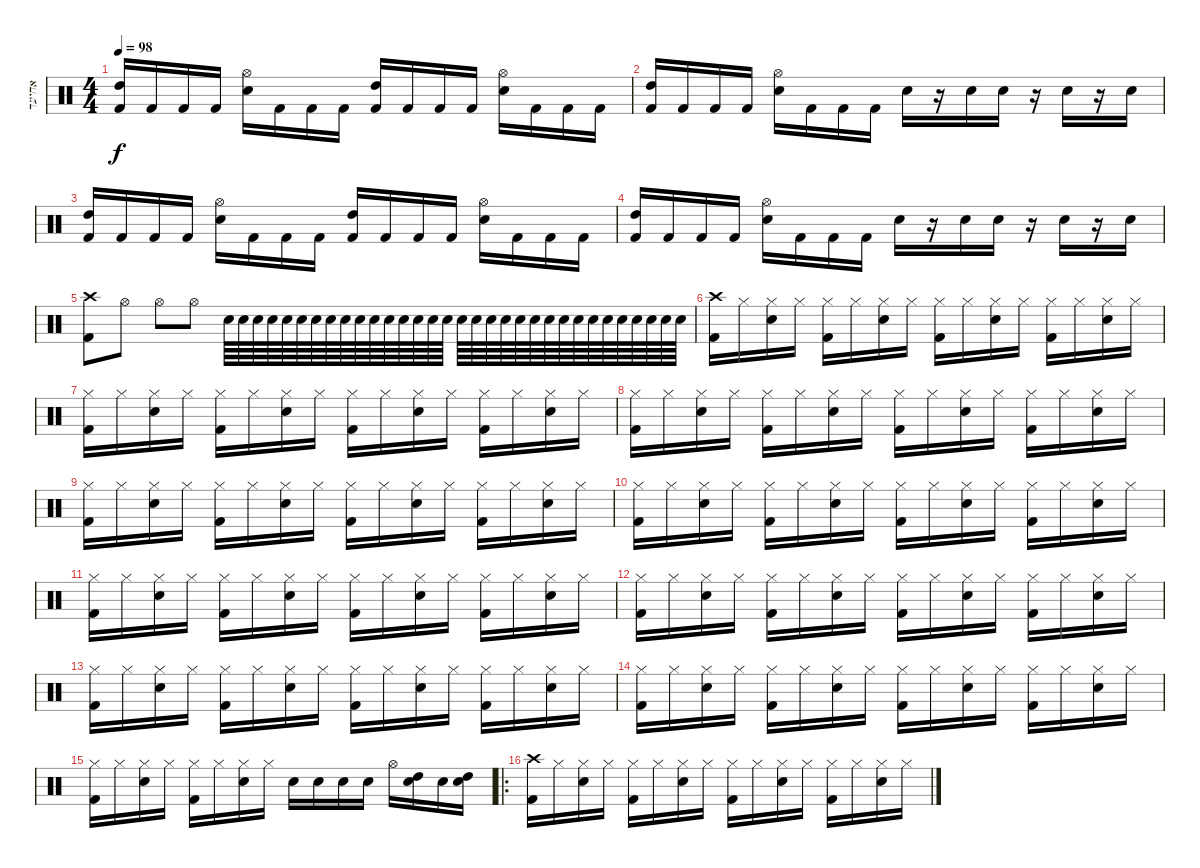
\track ("אחיעד" "אחיעד") {instrument percussion}
\staff {score}
\articulation defaults
\ts (4 4)
\tempo 98
\clef neutral
\ks c
("High Tom (hit)" "Kick (hit) 2").16{dy f} "Kick (hit) 2".16 "Kick (hit) 2".16 "Kick (hit) 2".16 ("Snare (hit) 2" "Hi-Hat (open)").16 "Kick (hit) 2".16 "Kick (hit) 2".16 "Kick (hit) 2".16 ("High Tom (hit)" "Kick (hit) 2").16 "Kick (hit) 2".16 "Kick (hit) 2".16 "Kick (hit) 2".16 ("Snare (hit) 2" "Hi-Hat (open)").16 "Kick (hit) 2".16 "Kick (hit) 2".16 "Kick (hit) 2".16 |
("High Tom (hit)" "Kick (hit) 2").16 "Kick (hit) 2".16 "Kick (hit) 2".16 "Kick (hit) 2".16 ("Snare (hit) 2" "Hi-Hat (open)").16 "Kick (hit) 2".16 "Kick (hit) 2".16 "Kick (hit) 2".16 "Snare (hit) 2".16 r.16 "Snare (hit) 2".16 "Snare (hit) 2".16 r.16 "Snare (hit) 2".16 r.16 "Snare (hit) 2".16 |
("High Tom (hit)" "Kick (hit) 2").16 "Kick (hit) 2".16 "Kick (hit) 2".16 "Kick (hit) 2".16 ("Snare (hit) 2" "Hi-Hat (open)").16 "Kick (hit) 2".16 "Kick (hit) 2".16 "Kick (hit) 2".16 ("High Tom (hit)" "Kick (hit) 2").16 "Kick (hit) 2".16 "Kick (hit) 2".16 "Kick (hit) 2".16 ("Snare (hit) 2" "Hi-Hat (open)").16 "Kick (hit) 2".16 "Kick (hit) 2".16 "Kick (hit) 2".16 |
("High Tom (hit)" "Kick (hit) 2").16 "Kick (hit) 2".16 "Kick (hit) 2".16 "Kick (hit) 2".16 ("Snare (hit) 2" "Hi-Hat (open)").16 "Kick (hit) 2".16 "Kick (hit) 2".16 "Kick (hit) 2".16 "Snare (hit) 2".16 r.16 "Snare (hit) 2".16 "Snare (hit) 2".16 r.16 "Snare (hit) 2".16 r.16 "Snare (hit) 2".16 |
("Crash high (hit)" "Kick (hit) 2").8 "Hi-Hat (open)".8 "Hi-Hat (open)".8 "Hi-Hat (open)".8 "Snare (hit) 2".64 "Snare (hit) 2".64 "Snare (hit) 2".64 "Snare (hit) 2".64 "Snare (hit) 2".64 "Snare (hit) 2".64 "Snare (hit) 2".64 "Snare (hit) 2".64 "Snare (hit) 2".64 "Snare (hit) 2".64 "Snare (hit) 2".64 "Snare (hit) 2".64 "Snare (hit) 2".64 "Snare (hit) 2".64 "Snare (hit) 2".64 "Snare (hit) 2".64 "Snare (hit) 2".64 "Snare (hit) 2".64 "Snare (hit) 2".64 "Snare (hit) 2".64 "Snare (hit) 2".64 "Snare (hit) 2".64 "Snare (hit) 2".64 "Snare (hit) 2".64 "Snare (hit) 2".64 "Snare (hit) 2".64 "Snare (hit) 2".64 "Snare (hit) 2".64 "Snare (hit) 2".64 "Snare (hit) 2".64 "Snare (hit) 2".64 "Snare (hit) 2".64 |
("Crash high (hit)" "Kick (hit) 2").16 "Hi-Hat (closed)".16 ("Hi-Hat (closed)" "Snare (hit) 2").16 "Hi-Hat (closed)".16 ("Hi-Hat (closed)" "Kick (hit) 2").16 "Hi-Hat (closed)".16 ("Hi-Hat (closed)" "Snare (hit) 2").16 "Hi-Hat (closed)".16 ("Hi-Hat (closed)" "Kick (hit) 2").16 "Hi-Hat (closed)".16 ("Hi-Hat (closed)" "Snare (hit) 2").16 "Hi-Hat (closed)".16 ("Hi-Hat (closed)" "Kick (hit) 2").16 "Hi-Hat (closed)".16 ("Hi-Hat (closed)" "Snare (hit) 2").16 "Hi-Hat (closed)".16 |
("Hi-Hat (closed)" "Kick (hit) 2").16 "Hi-Hat (closed)".16 ("Hi-Hat (closed)" "Snare (hit) 2").16 "Hi-Hat (closed)".16 ("Hi-Hat (closed)" "Kick (hit) 2").16 "Hi-Hat (closed)".16 ("Hi-Hat (closed)" "Snare (hit) 2").16 "Hi-Hat (closed)".16 ("Hi-Hat (closed)" "Kick (hit) 2").16 "Hi-Hat (closed)".16 ("Hi-Hat (closed)" "Snare (hit) 2").16 "Hi-Hat (closed)".16 ("Hi-Hat (closed)" "Kick (hit) 2").16 "Hi-Hat (closed)".16 ("Hi-Hat (closed)" "Snare (hit) 2").16 "Hi-Hat (closed)".16 |
("Hi-Hat (closed)" "Kick (hit) 2").16 "Hi-Hat (closed)".16 ("Hi-Hat (closed)" "Snare (hit) 2").16 "Hi-Hat (closed)".16 ("Hi-Hat (closed)" "Kick (hit) 2").16 "Hi-Hat (closed)".16 ("Hi-Hat (closed)" "Snare (hit) 2").16 "Hi-Hat (closed)".16 ("Hi-Hat (closed)" "Kick (hit) 2").16 "Hi-Hat (closed)".16 ("Hi-Hat (closed)" "Snare (hit) 2").16 "Hi-Hat (closed)".16 ("Hi-Hat (closed)" "Kick (hit) 2").16 "Hi-Hat (closed)".16 ("Hi-Hat (closed)" "Snare (hit) 2").16 "Hi-Hat (closed)".16 |
("Hi-Hat (closed)" "Kick (hit) 2").16 "Hi-Hat (closed)".16 ("Hi-Hat (closed)" "Snare (hit) 2").16 "Hi-Hat (closed)".16 ("Hi-Hat (closed)" "Kick (hit) 2").16 "Hi-Hat (closed)".16 ("Hi-Hat (closed)" "Snare (hit) 2").16 "Hi-Hat (closed)".16 ("Hi-Hat (closed)" "Kick (hit) 2").16 "Hi-Hat (closed)".16 ("Hi-Hat (closed)" "Snare (hit) 2").16 "Hi-Hat (closed)".16 ("Hi-Hat (closed)" "Kick (hit) 2").16 "Hi-Hat (closed)".16 ("Hi-Hat (closed)" "Snare (hit) 2").16 "Hi-Hat (closed)".16 |
("Hi-Hat (closed)" "Kick (hit) 2").16 "Hi-Hat (closed)".16 ("Hi-Hat (closed)" "Snare (hit) 2").16 "Hi-Hat (closed)".16 ("Hi-Hat (closed)" "Kick (hit) 2").16 "Hi-Hat (closed)".16 ("Hi-Hat (closed)" "Snare (hit) 2").16 "Hi-Hat (closed)".16 ("Hi-Hat (closed)" "Kick (hit) 2").16 "Hi-Hat (closed)".16 ("Hi-Hat (closed)" "Snare (hit) 2").16 "Hi-Hat (closed)".16 ("Hi-Hat (closed)" "Kick (hit) 2").16 "Hi-Hat (closed)".16 ("Hi-Hat (closed)" "Snare (hit) 2").16 "Hi-Hat (closed)".16 |
("Hi-Hat (closed)" "Kick (hit) 2").16 "Hi-Hat (closed)".16 ("Hi-Hat (closed)" "Snare (hit) 2").16 "Hi-Hat (closed)".16 ("Hi-Hat (closed)" "Kick (hit) 2").16 "Hi-Hat (closed)".16 ("Hi-Hat (closed)" "Snare (hit) 2").16 "Hi-Hat (closed)".16 ("Hi-Hat (closed)" "Kick (hit) 2").16 "Hi-Hat (closed)".16 ("Hi-Hat (closed)" "Snare (hit) 2").16 "Hi-Hat (closed)".16 ("Hi-Hat (closed)" "Kick (hit) 2").16 "Hi-Hat (closed)".16 ("Hi-Hat (closed)" "Snare (hit) 2").16 "Hi-Hat (closed)".16 |
("Hi-Hat (closed)" "Kick (hit) 2").16 "Hi-Hat (closed)".16 ("Hi-Hat (closed)" "Snare (hit) 2").16 "Hi-Hat (closed)".16 ("Hi-Hat (closed)" "Kick (hit) 2").16 "Hi-Hat (closed)".16 ("Hi-Hat (closed)" "Snare (hit) 2").16 "Hi-Hat (closed)".16 ("Hi-Hat (closed)" "Kick (hit) 2").16 "Hi-Hat (closed)".16 ("Hi-Hat (closed)" "Snare (hit) 2").16 "Hi-Hat (closed)".16 ("Hi-Hat (closed)" "Kick (hit) 2").16 "Hi-Hat (closed)".16 ("Hi-Hat (closed)" "Snare (hit) 2").16 "Hi-Hat (closed)".16 |
("Hi-Hat (closed)" "Kick (hit) 2").16 "Hi-Hat (closed)".16 ("Hi-Hat (closed)" "Snare (hit) 2").16 "Hi-Hat (closed)".16 ("Hi-Hat (closed)" "Kick (hit) 2").16 "Hi-Hat (closed)".16 ("Hi-Hat (closed)" "Snare (hit) 2").16 "Hi-Hat (closed)".16 ("Hi-Hat (closed)" "Kick (hit) 2").16 "Hi-Hat (closed)".16 ("Hi-Hat (closed)" "Snare (hit) 2").16 "Hi-Hat (closed)".16 ("Hi-Hat (closed)" "Kick (hit) 2").16 "Hi-Hat (closed)".16 ("Hi-Hat (closed)" "Snare (hit) 2").16 "Hi-Hat (closed)".16 |
("Hi-Hat (closed)" "Kick (hit) 2").16 "Hi-Hat (closed)".16 ("Hi-Hat (closed)" "Snare (hit) 2").16 "Hi-Hat (closed)".16 ("Hi-Hat (closed)" "Kick (hit) 2").16 "Hi-Hat (closed)".16 ("Hi-Hat (closed)" "Snare (hit) 2").16 "Hi-Hat (closed)".16 ("Hi-Hat (closed)" "Kick (hit) 2").16 "Hi-Hat (closed)".16 ("Hi-Hat (closed)" "Snare (hit) 2").16 "Hi-Hat (closed)".16 ("Hi-Hat (closed)" "Kick (hit) 2").16 "Hi-Hat (closed)".16 ("Hi-Hat (closed)" "Snare (hit) 2").16 "Hi-Hat (closed)".16 |
("Hi-Hat (closed)" "Kick (hit) 2").16 "Hi-Hat (closed)".16 ("Hi-Hat (closed)" "Snare (hit) 2").16 "Hi-Hat (closed)".16 ("Hi-Hat (closed)" "Kick (hit) 2").16 "Hi-Hat (closed)".16 ("Hi-Hat (closed)" "Snare (hit) 2").16 "Hi-Hat (closed)".16 "Snare (hit) 2".16 "Snare (hit) 2".16 "Snare (hit) 2".16 "Snare (hit) 2".16 "Hi-Hat (open)".16 ("High Tom (hit)" "Snare (hit) 2").16 "Snare (hit) 2".16 ("High Tom (hit)" "Snare (hit) 2").16 |
\ro
("Crash high (hit)" "Kick (hit) 2").16 "Hi-Hat (closed)".16 ("Hi-Hat (closed)" "Snare (hit) 2").16 "Hi-Hat (closed)".16 ("Hi-Hat (closed)" "Kick (hit) 2").16 "Hi-Hat (closed)".16 ("Hi-Hat (closed)" "Snare (hit) 2").16 "Hi-Hat (closed)".16 ("Hi-Hat (closed)" "Kick (hit) 2").16 "Hi-Hat (closed)".16 ("Hi-Hat (closed)" "Snare (hit) 2").16 "Hi-Hat (closed)".16 ("Hi-Hat (closed)" "Kick (hit) 2").16 "Hi-Hat (closed)".16 ("Hi-Hat (closed)" "Snare (hit) 2").16 "Hi-Hat (closed)".16
